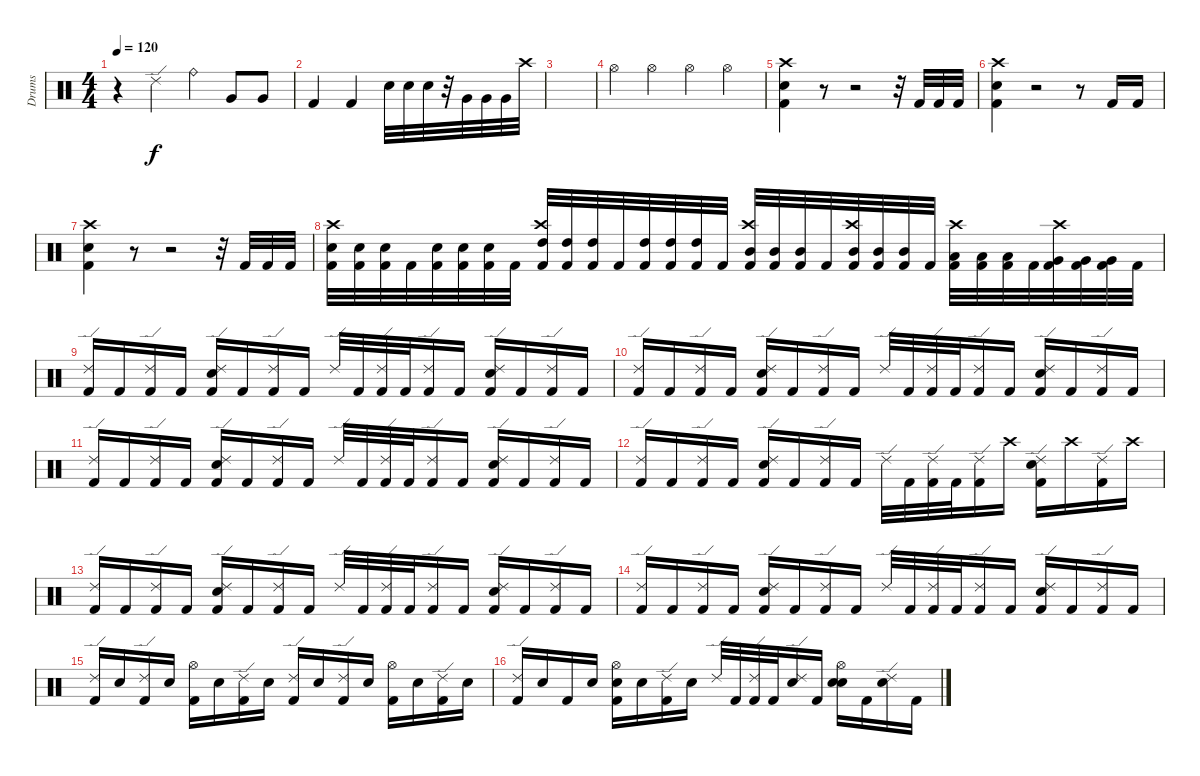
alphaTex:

\track ("Drums" "Drums") {instrument percussion}
\staff {score}
\articulation defaults
\ts (4 4)
\tempo 120
\clef neutral
\ks c
r.4{dy f} "Ride (edge) 2".4 "Ride (bell)".4 "Very Low Tom (hit)".8 "Very Low Tom (hit)".8 |
"Kick (hit) 2".4 "Kick (hit) 2".4 "Snare (hit) 2".32 "Snare (hit) 2".32 "Snare (hit) 2".32 r.32 "Very Low Tom (hit)".32 "Very Low Tom (hit)".32 "Very Low Tom (hit)".32 "Crash high (hit)".32 |
|
"Hi-Hat (open)".4 "Hi-Hat (open)".4 "Hi-Hat (open)".4 "Hi-Hat (open)".4 |
("Crash high (hit)" "Snare (hit) 2" "Kick (hit) 2").4 r.8 r.2 r.32 "Kick (hit) 2".32 "Kick (hit) 2".32 "Kick (hit) 2".32 |
("Crash high (hit)" "Snare (hit) 2" "Kick (hit) 2").4 r.2 r.8 "Kick (hit) 2".16 "Kick (hit) 2".16 |
("Crash high (hit)" "Snare (hit) 2" "Kick (hit) 2").4 r.8 r.2 r.32 "Kick (hit) 2".32 "Kick (hit) 2".32 "Kick (hit) 2".32 |
("Crash high (hit)" "Snare (hit) 2" "Kick (hit) 2").32 ("Snare (hit) 2" "Kick (hit) 2").32 ("Snare (hit) 2" "Kick (hit) 2").32 "Kick (hit) 2".32 ("Snare (hit) 2" "Kick (hit) 2").32 ("Snare (hit) 2" "Kick (hit) 2").32 ("Snare (hit) 2" "Kick (hit) 2").32 "Kick (hit) 2".32 ("Crash high (hit)" "High Tom (hit)" "Kick (hit) 2").32 ("High Tom (hit)" "Kick (hit) 2").32 ("High Tom (hit)" "Kick (hit) 2").32 "Kick (hit) 2".32 ("High Tom (hit)" "Kick (hit) 2").32 ("High Tom (hit)" "Kick (hit) 2").32 ("High Tom (hit)" "Kick (hit) 2").32 "Kick (hit) 2".32 ("Crash high (hit)" "Mid Tom (hit)" "Kick (hit) 2").32 ("Mid Tom (hit)" "Kick (hit) 2").32 ("Mid Tom (hit)" "Kick (hit) 2").32 "Kick (hit) 2".32 ("Crash high (hit)" "Mid Tom (hit)" "Kick (hit) 2").32 ("Mid Tom (hit)" "Kick (hit) 2").32 ("Mid Tom (hit)" "Kick (hit) 2").32 "Kick (hit) 2".32 ("Crash high (hit)" "Low Tom (hit)" "Kick (hit) 2").32 ("Low Tom (hit)" "Kick (hit) 2").32 ("Low Tom (hit)" "Kick (hit) 2").32 "Kick (hit) 2".32 ("Crash high (hit)" "Very Low Tom (hit)" "Kick (hit) 2").32 ("Very Low Tom (hit)" "Kick (hit) 2").32 ("Very Low Tom (hit)" "Kick (hit) 2").32 "Kick (hit) 2".32 |
("Ride (edge) 2" "Kick (hit) 2").16 "Kick (hit) 2".16 ("Ride (edge) 2" "Kick (hit) 2").16 "Kick (hit) 2".16 ("Ride (edge) 2" "Snare (hit) 2" "Kick (hit) 2").16 "Kick (hit) 2".16 ("Ride (edge) 2" "Kick (hit) 2").16 "Kick (hit) 2".16 "Ride (edge) 2".32 "Kick (hit) 2".32 ("Ride (edge) 2" "Kick (hit) 2").32 "Kick (hit) 2".32 ("Ride (edge) 2" "Kick (hit) 2").16 "Kick (hit) 2".16 ("Ride (edge) 2" "Snare (hit) 2" "Kick (hit) 2").16 "Kick (hit) 2".16 ("Ride (edge) 2" "Kick (hit) 2").16 "Kick (hit) 2".16 |
("Ride (edge) 2" "Kick (hit) 2").16 "Kick (hit) 2".16 ("Ride (edge) 2" "Kick (hit) 2").16 "Kick (hit) 2".16 ("Ride (edge) 2" "Snare (hit) 2" "Kick (hit) 2").16 "Kick (hit) 2".16 ("Ride (edge) 2" "Kick (hit) 2").16 "Kick (hit) 2".16 "Ride (edge) 2".32 "Kick (hit) 2".32 ("Ride (edge) 2" "Kick (hit) 2").32 "Kick (hit) 2".32 ("Ride (edge) 2" "Kick (hit) 2").16 "Kick (hit) 2".16 ("Ride (edge) 2" "Snare (hit) 2" "Kick (hit) 2").16 "Kick (hit) 2".16 ("Ride (edge) 2" "Kick (hit) 2").16 "Kick (hit) 2".16 |
("Ride (edge) 2" "Kick (hit) 2").16 "Kick (hit) 2".16 ("Ride (edge) 2" "Kick (hit) 2").16 "Kick (hit) 2".16 ("Ride (edge) 2" "Snare (hit) 2" "Kick (hit) 2").16 "Kick (hit) 2".16 ("Ride (edge) 2" "Kick (hit) 2").16 "Kick (hit) 2".16 "Ride (edge) 2".32 "Kick (hit) 2".32 ("Ride (edge) 2" "Kick (hit) 2").32 "Kick (hit) 2".32 ("Ride (edge) 2" "Kick (hit) 2").16 "Kick (hit) 2".16 ("Ride (edge) 2" "Snare (hit) 2" "Kick (hit) 2").16 "Kick (hit) 2".16 ("Ride (edge) 2" "Kick (hit) 2").16 "Kick (hit) 2".16 |
("Ride (edge) 2" "Kick (hit) 2").16 "Kick (hit) 2".16 ("Ride (edge) 2" "Kick (hit) 2").16 "Kick (hit) 2".16 ("Ride (edge) 2" "Snare (hit) 2" "Kick (hit) 2").16 "Kick (hit) 2".16 ("Ride (edge) 2" "Kick (hit) 2").16 "Kick (hit) 2".16 "Ride (edge) 2".32 "Kick (hit) 2".32 ("Ride (edge) 2" "Kick (hit) 2").32 "Kick (hit) 2".32 ("Ride (edge) 2" "Kick (hit) 2").16 "Crash high (hit)".16 ("Ride (edge) 2" "Snare (hit) 2" "Kick (hit) 2").16 "Crash high (hit)".16 ("Ride (edge) 2" "Kick (hit) 2").16 "Crash high (hit)".16 |
("Ride (edge) 2" "Kick (hit) 2").16 "Kick (hit) 2".16 ("Ride (edge) 2" "Kick (hit) 2").16 "Kick (hit) 2".16 ("Ride (edge) 2" "Snare (hit) 2" "Kick (hit) 2").16 "Kick (hit) 2".16 ("Ride (edge) 2" "Kick (hit) 2").16 "Kick (hit) 2".16 "Ride (edge) 2".32 "Kick (hit) 2".32 ("Ride (edge) 2" "Kick (hit) 2").32 "Kick (hit) 2".32 ("Ride (edge) 2" "Kick (hit) 2").16 "Kick (hit) 2".16 ("Ride (edge) 2" "Snare (hit) 2" "Kick (hit) 2").16 "Kick (hit) 2".16 ("Ride (edge) 2" "Kick (hit) 2").16 "Kick (hit) 2".16 |
("Ride (edge) 2" "Kick (hit) 2").16 "Kick (hit) 2".16 ("Ride (edge) 2" "Kick (hit) 2").16 "Kick (hit) 2".16 ("Ride (edge) 2" "Snare (hit) 2" "Kick (hit) 2").16 "Kick (hit) 2".16 ("Ride (edge) 2" "Kick (hit) 2").16 "Kick (hit) 2".16 "Ride (edge) 2".32 "Kick (hit) 2".32 ("Ride (edge) 2" "Kick (hit) 2").32 "Kick (hit) 2".32 ("Ride (edge) 2" "Kick (hit) 2").16 "Kick (hit) 2".16 ("Ride (edge) 2" "Snare (hit) 2" "Kick (hit) 2").16 "Kick (hit) 2".16 ("Ride (edge) 2" "Kick (hit) 2").16 "Kick (hit) 2".16 |
("Ride (edge) 2" "Kick (hit) 2").16 "Snare (hit) 2".16 ("Ride (edge) 2" "Kick (hit) 2").16 "Snare (hit) 2".16 ("Hi-Hat (open)" "Kick (hit) 2").16 "Snare (hit) 2".16 ("Ride (edge) 2" "Kick (hit) 2").16 "Snare (hit) 2".16 ("Ride (edge) 2" "Kick (hit) 2").16 "Snare (hit) 2".16 ("Ride (edge) 2" "Kick (hit) 2").16 "Snare (hit) 2".16 ("Hi-Hat (open)" "Kick (hit) 2").16 "Snare (hit) 2".16 ("Ride (edge) 2" "Kick (hit) 2").16 "Snare (hit) 2".16 |
("Ride (edge) 2" "Kick (hit) 2").16 "Snare (hit) 2".16 "Kick (hit) 2".16 "Snare (hit) 2".16 ("Hi-Hat (open)" "Snare (hit) 2" "Kick (hit) 2").16 "Snare (hit) 2".16 ("Ride (edge) 2" "Kick (hit) 2").16 "Snare (hit) 2".16 "Ride (edge) 2".32 "Kick (hit) 2".32 ("Ride (edge) 2" "Kick (hit) 2").32 "Kick (hit) 2".32 ("Ride (edge) 2" "Snare (hit) 2").16 "Kick (hit) 2".16 ("Hi-Hat (open)" "Snare (hit) 2" "Snare (hit) 2").16 "Kick (hit) 2".16 ("Ride (edge) 2" "Snare (hit) 2").16 "Kick (hit) 2".16
